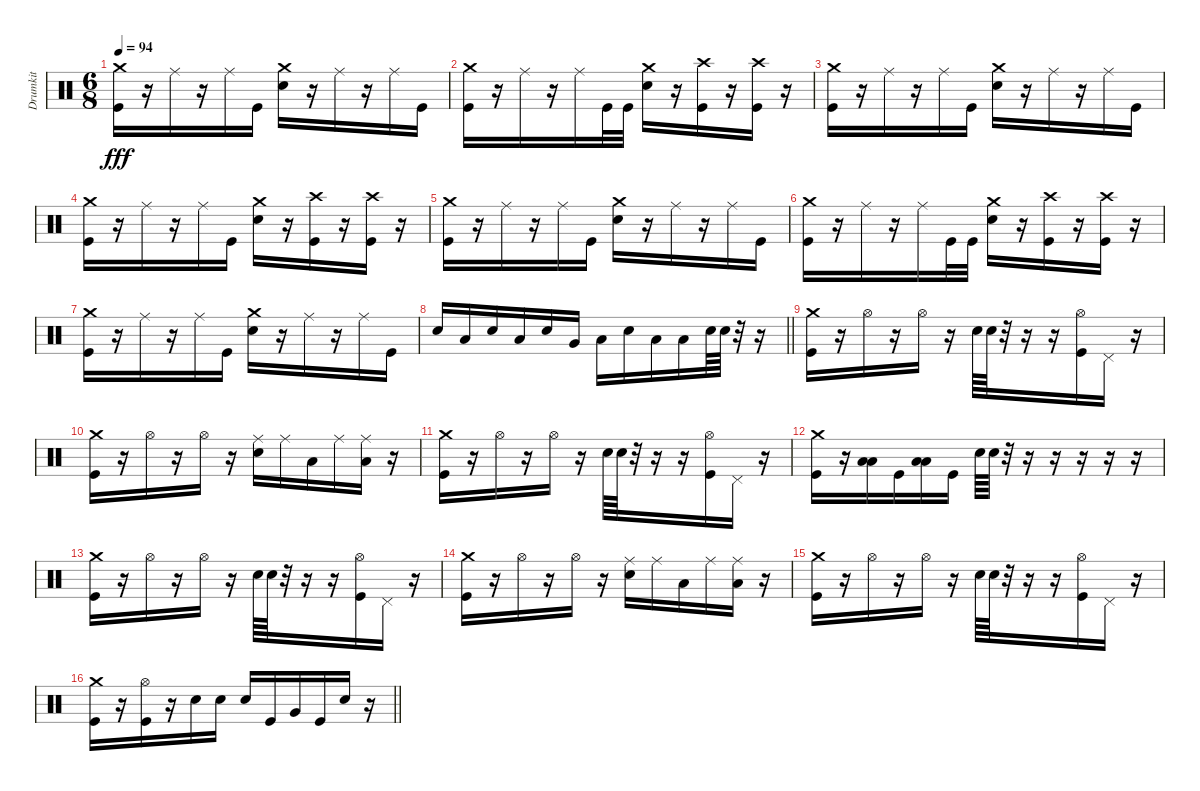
\track ("Drumkit" "Drumkit") {instrument percussion}
\staff {score}
\articulation defaults
\ts (6 8)
\tempo 94
\clef neutral
\ks c
("Crash medium (hit)" "Kick (hit)").16{dy fff} r.16 "Ride (middle)".16 r.16 "Ride (middle)".16 "Kick (hit)".16 ("Crash medium (hit)" "Snare (hit) 2").16 r.16 "Ride (middle)".16 r.16 "Ride (middle)".16 "Kick (hit)".16 |
("Crash medium (hit)" "Kick (hit)").16 r.16 "Ride (middle)".16 r.16 "Ride (middle)".16 "Kick (hit)".32 "Kick (hit)".32 ("Crash medium (hit)" "Snare (hit) 2").16 r.16 ("Crash high (hit)" "Kick (hit)").16 r.16 ("Crash high (hit)" "Kick (hit)").16 r.16 |
("Crash medium (hit)" "Kick (hit)").16 r.16 "Ride (middle)".16 r.16 "Ride (middle)".16 "Kick (hit)".16 ("Crash medium (hit)" "Snare (hit) 2").16 r.16 "Ride (middle)".16 r.16 "Ride (middle)".16 "Kick (hit)".16 |
("Crash medium (hit)" "Kick (hit)").16 r.16 "Ride (middle)".16 r.16 "Ride (middle)".16 "Kick (hit)".16 ("Crash medium (hit)" "Snare (hit) 2").16 r.16 ("Crash high (hit)" "Kick (hit)").16 r.16 ("Crash high (hit)" "Kick (hit)").16 r.16 |
("Crash medium (hit)" "Kick (hit)").16 r.16 "Ride (middle)".16 r.16 "Ride (middle)".16 "Kick (hit)".16 ("Crash medium (hit)" "Snare (hit) 2").16 r.16 "Ride (middle)".16 r.16 "Ride (middle)".16 "Kick (hit)".16 |
("Crash medium (hit)" "Kick (hit)").16 r.16 "Ride (middle)".16 r.16 "Ride (middle)".16 "Kick (hit)".32 "Kick (hit)".32 ("Crash medium (hit)" "Snare (hit) 2").16 r.16 ("Crash high (hit)" "Kick (hit)").16 r.16 ("Crash high (hit)" "Kick (hit)").16 r.16 |
("Crash medium (hit)" "Kick (hit)").16 r.16 "Ride (middle)".16 r.16 "Ride (middle)".16 "Kick (hit)".16 ("Crash medium (hit)" "Snare (hit) 2").16 r.16 "Ride (middle)".16 r.16 "Ride (middle)".16 "Kick (hit)".16 |
\barLineRight lightlight "Snare (hit) 2".16 "Low Tom (hit)".16 "Snare (hit) 2".16 "Low Tom (hit)".16 "Snare (hit) 2".16 "Very Low Tom (hit)".16 "Low Floor Tom (hit)".16 "Snare (hit) 2".16 "Low Floor Tom (hit)".16 "Low Floor Tom (hit)".16 "Snare (hit) 2".64 "Snare (hit) 2".64
r.32 r.16 |
("Crash medium (hit)" "Kick (hit)").16 r.16 "Hi-Hat (open)".16 r.16 "Hi-Hat (open)".16 r.16 "Snare (hit) 2".64 "Snare (hit) 2".64 r.32 r.16 r.16 ("Hi-Hat (open)" "Kick (hit)").16 "Pedal Hi-Hat (hit)".16 r.16 |
("Crash medium (hit)" "Kick (hit)").16 r.16 "Hi-Hat (open)".16 r.16 "Hi-Hat (open)".16 r.16 ("Ride (middle)" "Snare (hit) 2").16 "Ride (middle)".16 "Low Tom (hit)".16 "Ride (middle)".16 ("Ride (middle)" "Low Floor Tom (hit)").16 r.16 |
("Crash medium (hit)" "Kick (hit)").16 r.16 "Hi-Hat (open)".16 r.16 "Hi-Hat (open)".16 r.16 "Snare (hit) 2".64 "Snare (hit) 2".64 r.32 r.16 r.16 ("Hi-Hat (open)" "Kick (hit)").16 "Pedal Hi-Hat (hit)".16 r.16 |
("Crash medium (hit)" "Kick (hit)").16 r.16 ("Low Tom (hit)" "Low Floor Tom (hit)").16 "Kick (hit)".16 ("Low Tom (hit)" "Low Floor Tom (hit)").16 "Kick (hit)".16 "Snare (hit) 2".64 "Snare (hit) 2".64 r.32 r.16 r.16 r.16 r.16 r.16 |
("Crash medium (hit)" "Kick (hit)").16 r.16 "Hi-Hat (open)".16 r.16 "Hi-Hat (open)".16 r.16 "Snare (hit) 2".64 "Snare (hit) 2".64 r.32 r.16 r.16 ("Hi-Hat (open)" "Kick (hit)").16 "Pedal Hi-Hat (hit)".16 r.16 |
("Crash medium (hit)" "Kick (hit)").16 r.16 "Hi-Hat (open)".16 r.16 "Hi-Hat (open)".16 r.16 ("Ride (middle)" "Snare (hit) 2").16 "Ride (middle)".16 "Low Tom (hit)".16 "Ride (middle)".16 ("Ride (middle)" "Low Floor Tom (hit)").16 r.16 |
("Crash medium (hit)" "Kick (hit)").16 r.16 "Hi-Hat (open)".16 r.16 "Hi-Hat (open)".16 r.16 "Snare (hit) 2".64 "Snare (hit) 2".64 r.32 r.16 r.16 ("Hi-Hat (open)" "Kick (hit)").16 "Pedal Hi-Hat (hit)".16 r.16 |
\barLineRight lightlight
("Crash medium (hit)" "Kick (hit)").16 r.16 ("Kick (hit)" "Hi-Hat (open)").16 r.16 "Snare (hit) 2".16 "Snare (hit) 2".16 "Snare (hit) 2".16 "Kick (hit)".16 "Very Low Tom (hit)".16 "Kick (hit)".16 "Snare (hit) 2".16 r.16
